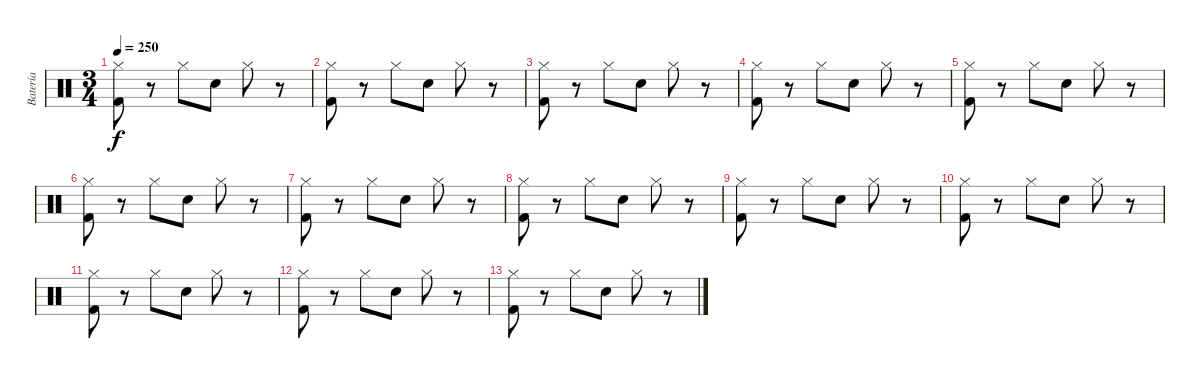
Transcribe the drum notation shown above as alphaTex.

\track ("Batería" "Batería") {instrument percussion}
\staff {score}
\articulation defaults
\ts (3 4)
\tempo 250
\clef neutral
\ks c
("Kick (hit) 2" "Hi-Hat (closed)").8{dy f} r.8 "Hi-Hat (closed)".8 "Snare (hit) 2".8 "Hi-Hat (closed)".8 r.8 |
("Kick (hit) 2" "Hi-Hat (closed)").8 r.8 "Hi-Hat (closed)".8 "Snare (hit) 2".8 "Hi-Hat (closed)".8 r.8 |
("Kick (hit) 2" "Hi-Hat (closed)").8 r.8 "Hi-Hat (closed)".8 "Snare (hit) 2".8 "Hi-Hat (closed)".8 r.8 |
("Kick (hit) 2" "Hi-Hat (closed)").8 r.8 "Hi-Hat (closed)".8 "Snare (hit) 2".8 "Hi-Hat (closed)".8 r.8 |
("Kick (hit) 2" "Hi-Hat (closed)").8 r.8 "Hi-Hat (closed)".8 "Snare (hit) 2".8 "Hi-Hat (closed)".8 r.8 |
("Kick (hit) 2" "Hi-Hat (closed)").8 r.8 "Hi-Hat (closed)".8 "Snare (hit) 2".8 "Hi-Hat (closed)".8 r.8 |
("Kick (hit) 2" "Hi-Hat (closed)").8 r.8 "Hi-Hat (closed)".8 "Snare (hit) 2".8 "Hi-Hat (closed)".8 r.8 |
("Kick (hit) 2" "Hi-Hat (closed)").8 r.8 "Hi-Hat (closed)".8 "Snare (hit) 2".8 "Hi-Hat (closed)".8 r.8 |
("Kick (hit) 2" "Hi-Hat (closed)").8 r.8 "Hi-Hat (closed)".8 "Snare (hit) 2".8 "Hi-Hat (closed)".8 r.8 |
("Kick (hit) 2" "Hi-Hat (closed)").8 r.8 "Hi-Hat (closed)".8 "Snare (hit) 2".8 "Hi-Hat (closed)".8 r.8 |
("Kick (hit) 2" "Hi-Hat (closed)").8 r.8 "Hi-Hat (closed)".8 "Snare (hit) 2".8 "Hi-Hat (closed)".8 r.8 |
("Kick (hit) 2" "Hi-Hat (closed)").8 r.8 "Hi-Hat (closed)".8 "Snare (hit) 2".8 "Hi-Hat (closed)".8 r.8 |
("Kick (hit) 2" "Hi-Hat (closed)").8 r.8 "Hi-Hat (closed)".8 "Snare (hit) 2".8 "Hi-Hat (closed)".8 r.8
